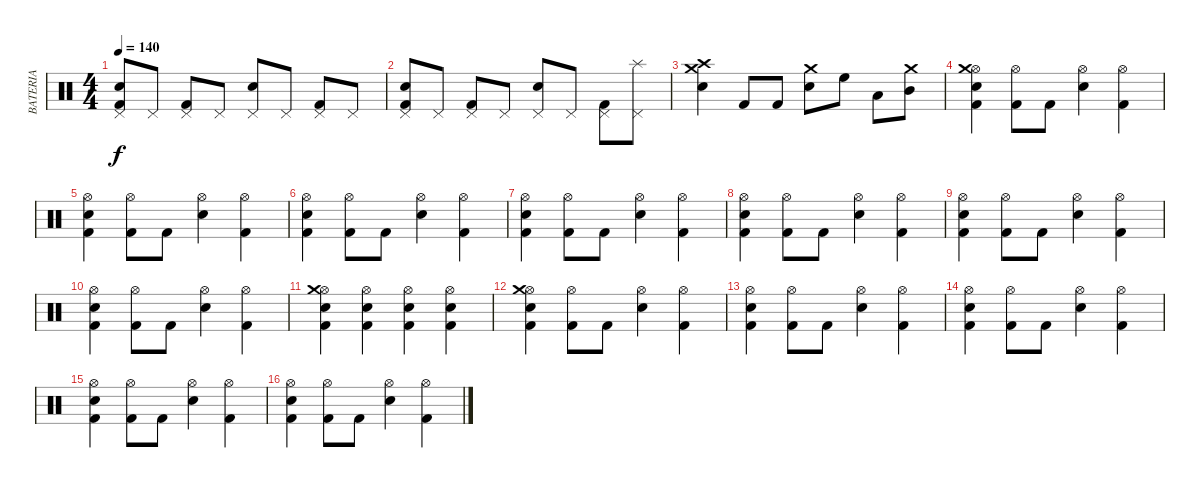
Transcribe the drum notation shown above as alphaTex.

\track ("BATERIA" "BATERIA") {instrument percussion}
\staff {score}
\articulation defaults
\ts (4 4)
\tempo 140
\clef neutral
\ks c
("Kick (hit) 2" "Electric Snare (hit)" "Pedal Hi-Hat (hit)").8{dy f} "Pedal Hi-Hat (hit)".8 ("Kick (hit) 2" "Pedal Hi-Hat (hit)").8 "Pedal Hi-Hat (hit)".8 ("Electric Snare (hit)" "Pedal Hi-Hat (hit)").8 "Pedal Hi-Hat (hit)".8 ("Kick (hit) 2" "Pedal Hi-Hat (hit)").8 "Pedal Hi-Hat (hit)".8 |
("Kick (hit) 2" "Electric Snare (hit)" "Pedal Hi-Hat (hit)").8 "Pedal Hi-Hat (hit)".8 ("Kick (hit) 2" "Pedal Hi-Hat (hit)").8 "Pedal Hi-Hat (hit)".8 ("Electric Snare (hit)" "Pedal Hi-Hat (hit)").8 "Pedal Hi-Hat (hit)".8 ("Kick (hit) 2" "Pedal Hi-Hat (hit)").8 ("Pedal Hi-Hat (hit)" "Splash (hit)").8 |
("Electric Snare (hit)" "Crash medium (hit)" "Crash high (hit)").4 "Kick (hit) 2".8 "Kick (hit) 2".8 ("Electric Snare (hit)" "Crash medium (hit)").8 "High Floor Tom (hit)".8 "Low Tom (hit)".8 ("Mid Tom (hit)" "Crash medium (hit)").8 |
("Kick (hit) 2" "Electric Snare (hit)" "Hi-Hat (open)" "Crash medium (hit)").4 ("Kick (hit) 2" "Hi-Hat (open)").8 "Kick (hit) 2".8 ("Electric Snare (hit)" "Hi-Hat (open)").4 ("Kick (hit) 2" "Hi-Hat (open)").4 |
("Kick (hit) 2" "Electric Snare (hit)" "Hi-Hat (open)").4 ("Kick (hit) 2" "Hi-Hat (open)").8 "Kick (hit) 2".8 ("Electric Snare (hit)" "Hi-Hat (open)").4 ("Kick (hit) 2" "Hi-Hat (open)").4 |
("Kick (hit) 2" "Electric Snare (hit)" "Hi-Hat (open)").4 ("Kick (hit) 2" "Hi-Hat (open)").8 "Kick (hit) 2".8 ("Electric Snare (hit)" "Hi-Hat (open)").4 ("Kick (hit) 2" "Hi-Hat (open)").4 |
("Kick (hit) 2" "Electric Snare (hit)" "Hi-Hat (open)").4 ("Kick (hit) 2" "Hi-Hat (open)").8 "Kick (hit) 2".8 ("Electric Snare (hit)" "Hi-Hat (open)").4 ("Kick (hit) 2" "Hi-Hat (open)").4 |
("Kick (hit) 2" "Electric Snare (hit)" "Hi-Hat (open)").4 ("Kick (hit) 2" "Hi-Hat (open)").8 "Kick (hit) 2".8 ("Electric Snare (hit)" "Hi-Hat (open)").4 ("Kick (hit) 2" "Hi-Hat (open)").4 |
("Kick (hit) 2" "Electric Snare (hit)" "Hi-Hat (open)").4 ("Kick (hit) 2" "Hi-Hat (open)").8 "Kick (hit) 2".8 ("Electric Snare (hit)" "Hi-Hat (open)").4 ("Kick (hit) 2" "Hi-Hat (open)").4 |
("Kick (hit) 2" "Electric Snare (hit)" "Hi-Hat (open)").4 ("Kick (hit) 2" "Hi-Hat (open)").8 "Kick (hit) 2".8 ("Electric Snare (hit)" "Hi-Hat (open)").4 ("Kick (hit) 2" "Hi-Hat (open)").4 |
("Kick (hit) 2" "Electric Snare (hit)" "Hi-Hat (open)" "Crash medium (hit)").4 ("Kick (hit) 2" "Electric Snare (hit)" "Hi-Hat (open)").4 ("Kick (hit) 2" "Electric Snare (hit)" "Hi-Hat (open)").4 ("Kick (hit) 2" "Electric Snare (hit)" "Hi-Hat (open)").4 |
("Kick (hit) 2" "Electric Snare (hit)" "Hi-Hat (open)" "Crash medium (hit)").4 ("Kick (hit) 2" "Hi-Hat (open)").8 "Kick (hit) 2".8 ("Electric Snare (hit)" "Hi-Hat (open)").4 ("Kick (hit) 2" "Hi-Hat (open)").4 |
("Kick (hit) 2" "Electric Snare (hit)" "Hi-Hat (open)").4 ("Kick (hit) 2" "Hi-Hat (open)").8 "Kick (hit) 2".8 ("Electric Snare (hit)" "Hi-Hat (open)").4 ("Kick (hit) 2" "Hi-Hat (open)").4 |
("Kick (hit) 2" "Electric Snare (hit)" "Hi-Hat (open)").4 ("Kick (hit) 2" "Hi-Hat (open)").8 "Kick (hit) 2".8 ("Electric Snare (hit)" "Hi-Hat (open)").4 ("Kick (hit) 2" "Hi-Hat (open)").4 |
("Kick (hit) 2" "Electric Snare (hit)" "Hi-Hat (open)").4 ("Kick (hit) 2" "Hi-Hat (open)").8 "Kick (hit) 2".8 ("Electric Snare (hit)" "Hi-Hat (open)").4 ("Kick (hit) 2" "Hi-Hat (open)").4 |
("Kick (hit) 2" "Electric Snare (hit)" "Hi-Hat (open)").4 ("Kick (hit) 2" "Hi-Hat (open)").8 "Kick (hit) 2".8 ("Electric Snare (hit)" "Hi-Hat (open)").4 ("Kick (hit) 2" "Hi-Hat (open)").4
